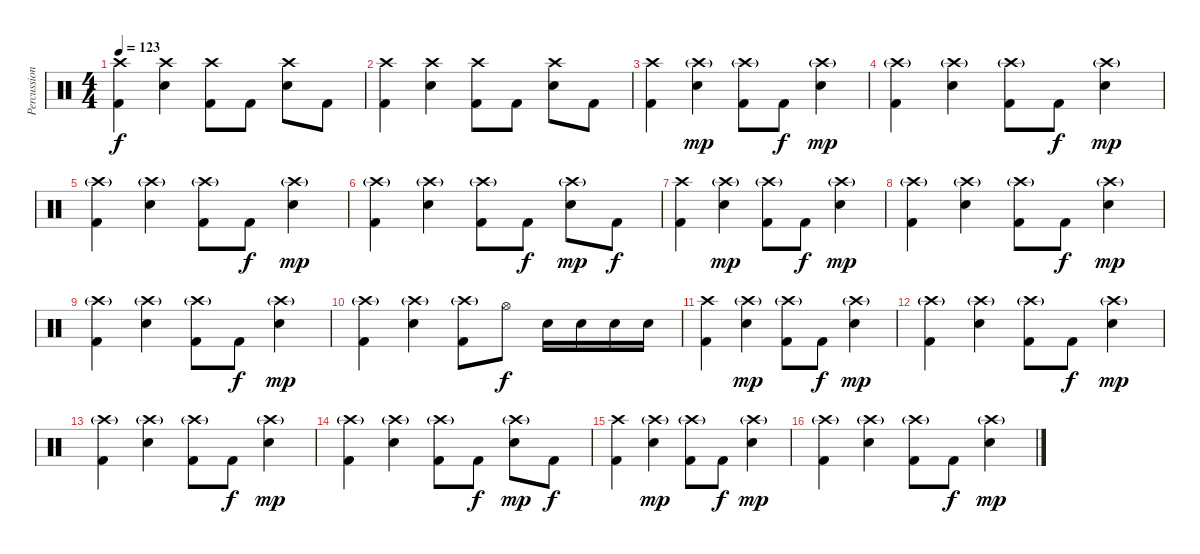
\track ("Percussions" "Percussion") {instrument percussion}
\staff {score}
\articulation defaults
\ts (4 4)
\tempo 123
\clef neutral
\ks c
("Crash high (hit)" "Kick (hit) 2").4{dy f} ("Crash high (hit)" "Snare (hit) 2").4 ("Crash high (hit)" "Kick (hit) 2").8 "Kick (hit) 2".8 ("Crash high (hit)" "Snare (hit) 2").8 "Kick (hit) 2".8 |
("Crash high (hit)" "Kick (hit) 2").4 ("Crash high (hit)" "Snare (hit) 2").4 ("Crash high (hit)" "Kick (hit) 2").8 "Kick (hit) 2".8 ("Crash high (hit)" "Snare (hit) 2").8 "Kick (hit) 2".8 |
("Crash high (hit)" "Kick (hit) 2").4 ("Crash high (hit)"{g} "Snare (hit) 2").4{dy mp} ("Crash high (hit)"{g} "Kick (hit) 2").8 "Kick (hit) 2".8{dy f} ("Crash high (hit)"{g} "Snare (hit) 2").4{dy mp} |
("Crash high (hit)"{g} "Kick (hit) 2").4 ("Crash high (hit)"{g} "Snare (hit) 2").4 ("Crash high (hit)"{g} "Kick (hit) 2").8 "Kick (hit) 2".8{dy f} ("Crash high (hit)"{g} "Snare (hit) 2").4{dy mp} |
("Crash high (hit)"{g} "Kick (hit) 2").4 ("Crash high (hit)"{g} "Snare (hit) 2").4 ("Crash high (hit)"{g} "Kick (hit) 2").8 "Kick (hit) 2".8{dy f} ("Crash high (hit)"{g} "Snare (hit) 2").4{dy mp} |
("Crash high (hit)"{g} "Kick (hit) 2").4 ("Crash high (hit)"{g} "Snare (hit) 2").4 ("Crash high (hit)"{g} "Kick (hit) 2").8 "Kick (hit) 2".8{dy f} ("Crash high (hit)"{g} "Snare (hit) 2").8{dy mp} "Kick (hit) 2".8{dy f} |
("Crash high (hit)" "Kick (hit) 2").4 ("Crash high (hit)"{g} "Snare (hit) 2").4{dy mp} ("Crash high (hit)"{g} "Kick (hit) 2").8 "Kick (hit) 2".8{dy f} ("Crash high (hit)"{g} "Snare (hit) 2").4{dy mp} |
("Crash high (hit)"{g} "Kick (hit) 2").4 ("Crash high (hit)"{g} "Snare (hit) 2").4 ("Crash high (hit)"{g} "Kick (hit) 2").8 "Kick (hit) 2".8{dy f} ("Crash high (hit)"{g} "Snare (hit) 2").4{dy mp} |
("Crash high (hit)"{g} "Kick (hit) 2").4 ("Crash high (hit)"{g} "Snare (hit) 2").4 ("Crash high (hit)"{g} "Kick (hit) 2").8 "Kick (hit) 2".8{dy f} ("Crash high (hit)"{g} "Snare (hit) 2").4{dy mp} |
("Crash high (hit)"{g} "Kick (hit) 2").4 ("Crash high (hit)"{g} "Snare (hit) 2").4 ("Crash high (hit)"{g} "Kick (hit) 2").8 "Hi-Hat (open)".8{dy f} "Electric Snare (hit)".16 "Electric Snare (hit)".16 "Electric Snare (hit)".16 "Electric Snare (hit)".16 |
("Crash high (hit)" "Kick (hit) 2").4 ("Crash high (hit)"{g} "Snare (hit) 2").4{dy mp} ("Crash high (hit)"{g} "Kick (hit) 2").8 "Kick (hit) 2".8{dy f} ("Crash high (hit)"{g} "Snare (hit) 2").4{dy mp} |
("Crash high (hit)"{g} "Kick (hit) 2").4 ("Crash high (hit)"{g} "Snare (hit) 2").4 ("Crash high (hit)"{g} "Kick (hit) 2").8 "Kick (hit) 2".8{dy f} ("Crash high (hit)"{g} "Snare (hit) 2").4{dy mp} |
("Crash high (hit)"{g} "Kick (hit) 2").4 ("Crash high (hit)"{g} "Snare (hit) 2").4 ("Crash high (hit)"{g} "Kick (hit) 2").8 "Kick (hit) 2".8{dy f} ("Crash high (hit)"{g} "Snare (hit) 2").4{dy mp} |
("Crash high (hit)"{g} "Kick (hit) 2").4 ("Crash high (hit)"{g} "Snare (hit) 2").4 ("Crash high (hit)"{g} "Kick (hit) 2").8 "Kick (hit) 2".8{dy f} ("Crash high (hit)"{g} "Snare (hit) 2").8{dy mp} "Kick (hit) 2".8{dy f} |
("Crash high (hit)" "Kick (hit) 2").4 ("Crash high (hit)"{g} "Snare (hit) 2").4{dy mp} ("Crash high (hit)"{g} "Kick (hit) 2").8 "Kick (hit) 2".8{dy f} ("Crash high (hit)"{g} "Snare (hit) 2").4{dy mp} |
("Crash high (hit)"{g} "Kick (hit) 2").4 ("Crash high (hit)"{g} "Snare (hit) 2").4 ("Crash high (hit)"{g} "Kick (hit) 2").8 "Kick (hit) 2".8{dy f} ("Crash high (hit)"{g} "Snare (hit) 2").4{dy mp}
